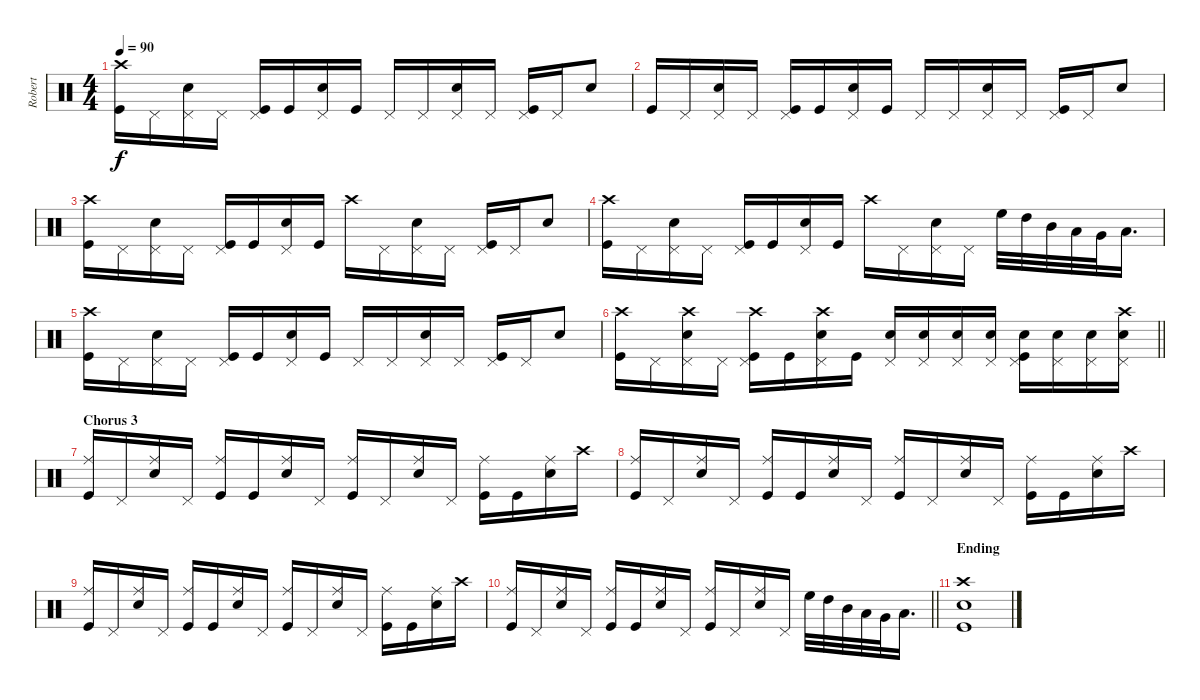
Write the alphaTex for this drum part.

\track ("Robert" "Robert") {instrument percussion}
\staff {score}
\articulation defaults
\ts (4 4)
\tempo 90
\clef neutral
\ks c
("Crash high (hit)" "Kick (hit)").16{dy f} "Pedal Hi-Hat (hit)".16 ("Pedal Hi-Hat (hit)" "Snare (hit) 2").16 "Pedal Hi-Hat (hit)".16 ("Pedal Hi-Hat (hit)" "Kick (hit)").16 "Kick (hit)".16 ("Pedal Hi-Hat (hit)" "Snare (hit) 2").16 "Kick (hit)".16 "Pedal Hi-Hat (hit)".16 "Pedal Hi-Hat (hit)".16 ("Pedal Hi-Hat (hit)" "Snare (hit) 2").16 "Pedal Hi-Hat (hit)".16 ("Pedal Hi-Hat (hit)" "Kick (hit)").16 "Pedal Hi-Hat (hit)".16 "Snare (hit) 2".8 |
"Kick (hit)".16 "Pedal Hi-Hat (hit)".16 ("Pedal Hi-Hat (hit)" "Snare (hit) 2").16 "Pedal Hi-Hat (hit)".16 ("Pedal Hi-Hat (hit)" "Kick (hit)").16 "Kick (hit)".16 ("Pedal Hi-Hat (hit)" "Snare (hit) 2").16 "Kick (hit)".16 "Pedal Hi-Hat (hit)".16 "Pedal Hi-Hat (hit)".16 ("Pedal Hi-Hat (hit)" "Snare (hit) 2").16 "Pedal Hi-Hat (hit)".16 ("Pedal Hi-Hat (hit)" "Kick (hit)").16 "Pedal Hi-Hat (hit)".16 "Snare (hit) 2".8 |
("Crash high (hit)" "Kick (hit)").16 "Pedal Hi-Hat (hit)".16 ("Pedal Hi-Hat (hit)" "Snare (hit) 2").16 "Pedal Hi-Hat (hit)".16 ("Pedal Hi-Hat (hit)" "Kick (hit)").16 "Kick (hit)".16 ("Pedal Hi-Hat (hit)" "Snare (hit) 2").16 "Kick (hit)".16 "Crash high (hit)".16 "Pedal Hi-Hat (hit)".16 ("Pedal Hi-Hat (hit)" "Snare (hit) 2").16 "Pedal Hi-Hat (hit)".16 ("Pedal Hi-Hat (hit)" "Kick (hit)").16 "Pedal Hi-Hat (hit)".16 "Snare (hit) 2".8 |
("Crash high (hit)" "Kick (hit)").16 "Pedal Hi-Hat (hit)".16 ("Pedal Hi-Hat (hit)" "Snare (hit) 2").16 "Pedal Hi-Hat (hit)".16 ("Pedal Hi-Hat (hit)" "Kick (hit)").16 "Kick (hit)".16 ("Pedal Hi-Hat (hit)" "Snare (hit) 2").16 "Kick (hit)".16 "Crash high (hit)".16 "Pedal Hi-Hat (hit)".16 ("Pedal Hi-Hat (hit)" "Snare (hit) 2").16 "Pedal Hi-Hat (hit)".16 "High Floor Tom (hit)".32 "High Tom (hit)".32 "Mid Tom (hit)".32 "Low Tom (hit)".32 "Very Low Tom (hit)".32 "Low Floor Tom (hit)".16{d} |
("Crash high (hit)" "Kick (hit)").16 "Pedal Hi-Hat (hit)".16 ("Pedal Hi-Hat (hit)" "Snare (hit) 2").16 "Pedal Hi-Hat (hit)".16 ("Pedal Hi-Hat (hit)" "Kick (hit)").16 "Kick (hit)".16 ("Pedal Hi-Hat (hit)" "Snare (hit) 2").16 "Kick (hit)".16 "Pedal Hi-Hat (hit)".16 "Pedal Hi-Hat (hit)".16 ("Pedal Hi-Hat (hit)" "Snare (hit) 2").16 "Pedal Hi-Hat (hit)".16 ("Pedal Hi-Hat (hit)" "Kick (hit)").16 "Pedal Hi-Hat (hit)".16 "Snare (hit) 2".8 |
\barLineRight lightlight
("Crash high (hit)" "Kick (hit)").16 "Pedal Hi-Hat (hit)".16 ("Pedal Hi-Hat (hit)" "Crash high (hit)" "Snare (hit) 2").16 "Pedal Hi-Hat (hit)".16 ("Pedal Hi-Hat (hit)" "Kick (hit)" "Crash high (hit)").16 "Kick (hit)".16 ("Pedal Hi-Hat (hit)" "Crash high (hit)" "Snare (hit) 2").16 "Kick (hit)".16 ("Pedal Hi-Hat (hit)" "Snare (hit) 2").16 ("Snare (hit) 2" "Pedal Hi-Hat (hit)").16 ("Pedal Hi-Hat (hit)" "Snare (hit) 2").16 ("Snare (hit) 2" "Pedal Hi-Hat (hit)").16 ("Pedal Hi-Hat (hit)" "Snare (hit) 2" "Kick (hit)").16 ("Snare (hit) 2" "Pedal Hi-Hat (hit)").16 ("Pedal Hi-Hat (hit)" "Snare (hit) 2").16 ("Snare (hit) 2" "Crash high (hit)" "Pedal Hi-Hat (hit)").16 |
\section ("" "Chorus 3")
("Ride (middle)" "Kick (hit)").16 "Pedal Hi-Hat (hit)".16 ("Ride (middle)" "Snare (hit) 2").16 "Pedal Hi-Hat (hit)".16 ("Ride (middle)" "Kick (hit)").16 "Kick (hit)".16 ("Ride (middle)" "Snare (hit) 2").16 "Pedal Hi-Hat (hit)".16 ("Ride (middle)" "Kick (hit)").16 "Pedal Hi-Hat (hit)".16 ("Ride (middle)" "Snare (hit) 2").16 "Pedal Hi-Hat (hit)".16 ("Ride (middle)" "Kick (hit)").16 "Kick (hit)".16 ("Ride (middle)" "Snare (hit) 2").16 "Crash high (hit)".16 |
("Ride (middle)" "Kick (hit)").16 "Pedal Hi-Hat (hit)".16 ("Ride (middle)" "Snare (hit) 2").16 "Pedal Hi-Hat (hit)".16 ("Ride (middle)" "Kick (hit)").16 "Kick (hit)".16 ("Ride (middle)" "Snare (hit) 2").16 "Pedal Hi-Hat (hit)".16 ("Ride (middle)" "Kick (hit)").16 "Pedal Hi-Hat (hit)".16 ("Ride (middle)" "Snare (hit) 2").16 "Pedal Hi-Hat (hit)".16 ("Ride (middle)" "Kick (hit)").16 "Kick (hit)".16 ("Ride (middle)" "Snare (hit) 2").16 "Crash high (hit)".16 |
("Ride (middle)" "Kick (hit)").16 "Pedal Hi-Hat (hit)".16 ("Ride (middle)" "Snare (hit) 2").16 "Pedal Hi-Hat (hit)".16 ("Ride (middle)" "Kick (hit)").16 "Kick (hit)".16 ("Ride (middle)" "Snare (hit) 2").16 "Pedal Hi-Hat (hit)".16 ("Ride (middle)" "Kick (hit)").16 "Pedal Hi-Hat (hit)".16 ("Ride (middle)" "Snare (hit) 2").16 "Pedal Hi-Hat (hit)".16 ("Ride (middle)" "Kick (hit)").16 "Kick (hit)".16 ("Ride (middle)" "Snare (hit) 2").16 "Crash high (hit)".16 |
\barLineRight lightlight
("Ride (middle)" "Kick (hit)").16 "Pedal Hi-Hat (hit)".16 ("Ride (middle)" "Snare (hit) 2").16 "Pedal Hi-Hat (hit)".16 ("Ride (middle)" "Kick (hit)").16 "Kick (hit)".16 ("Ride (middle)" "Snare (hit) 2").16 "Pedal Hi-Hat (hit)".16 ("Ride (middle)" "Kick (hit)").16 "Pedal Hi-Hat (hit)".16 ("Ride (middle)" "Snare (hit) 2").16 "Pedal Hi-Hat (hit)".16 "High Floor Tom (hit)".32 "High Tom (hit)".32 "Mid Tom (hit)".32 "Low Tom (hit)".32 "Very Low Tom (hit)".32 "Low Floor Tom (hit)".16{d} |
\section ("" "Ending")
("Snare (hit) 2" "Kick (hit)" "Crash high (hit)").1
